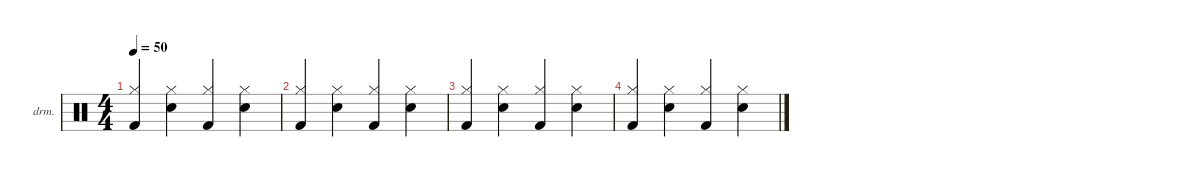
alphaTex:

\defaultSystemsLayout 4
\hideDynamics
\bracketExtendMode nobrackets
\firstSystemTrackNameOrientation horizontal
\otherSystemsTrackNameOrientation horizontal
\track ("Drumkit" "drm.") {defaultSystemsLayout 4 instrument percussion}
\staff {score}
\articulation defaults
\ts (4 4)
\tempo 50
\clef neutral
\ks c
("Kick (hit) 2" "Hi-Hat (closed)").4{dy mf beam Up} ("Snare (hit) 2" "Hi-Hat (closed)").4{beam Down} ("Kick (hit) 2" "Hi-Hat (closed)").4{beam Up} ("Snare (hit) 2" "Hi-Hat (closed)").4{beam Down} |
("Kick (hit) 2" "Hi-Hat (closed)").4{beam Up} ("Snare (hit) 2" "Hi-Hat (closed)").4{beam Down} ("Kick (hit) 2" "Hi-Hat (closed)").4{beam Up} ("Snare (hit) 2" "Hi-Hat (closed)").4{beam Down} |
("Kick (hit) 2" "Hi-Hat (closed)").4{beam Up} ("Snare (hit) 2" "Hi-Hat (closed)").4{beam Down} ("Kick (hit) 2" "Hi-Hat (closed)").4{beam Up} ("Snare (hit) 2" "Hi-Hat (closed)").4{beam Down} |
("Kick (hit) 2" "Hi-Hat (closed)").4{beam Up} ("Snare (hit) 2" "Hi-Hat (closed)").4{beam Down} ("Kick (hit) 2" "Hi-Hat (closed)").4{beam Up} ("Snare (hit) 2" "Hi-Hat (closed)").4{beam Down}
